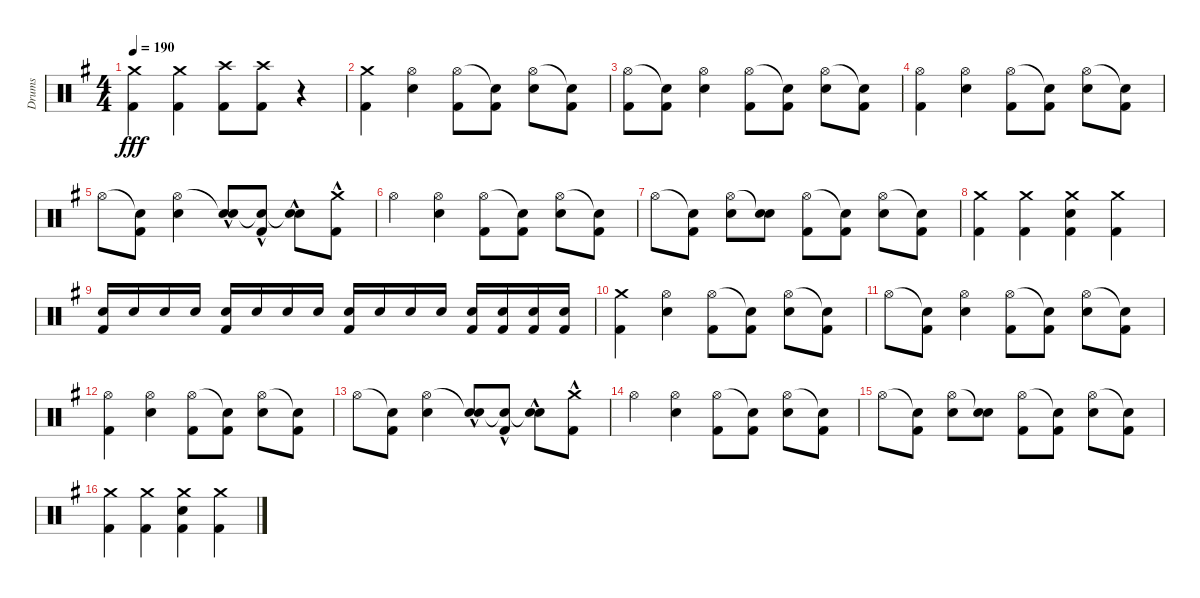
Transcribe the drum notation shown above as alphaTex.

\track ("Drums" "Drums") {instrument percussion}
\staff {score}
\articulation defaults
\ts (4 4)
\tempo 190
\clef neutral
\ks eminor
("Crash medium (hit)" "Kick (hit) 2").4{dy fff} ("Crash medium (hit)" "Kick (hit) 2").4 ("Crash high (hit)" "Kick (hit) 2").8 ("Crash high (hit)" "Kick (hit) 2").8 r.4 |
("Crash medium (hit)" "Kick (hit) 2").4 ("Hi-Hat (open)" "Electric Snare (hit)").4 ("Hi-Hat (open)" "Kick (hit) 2").8 ("Snare (hit)"{t} "Kick (hit) 2").8 ("Hi-Hat (open)" "Electric Snare (hit)").8 ("Snare (hit)"{t} "Kick (hit) 2").8 |
("Hi-Hat (open)" "Kick (hit) 2").8 ("Snare (hit)"{t} "Kick (hit) 2").8 ("Hi-Hat (open)" "Electric Snare (hit)").4 ("Hi-Hat (open)" "Kick (hit) 2").8 ("Snare (hit)"{t} "Kick (hit) 2").8 ("Hi-Hat (open)" "Electric Snare (hit)").8 ("Snare (hit)"{t} "Kick (hit) 2").8 |
("Hi-Hat (open)" "Kick (hit) 2").4 ("Hi-Hat (open)" "Electric Snare (hit)").4 ("Hi-Hat (open)" "Kick (hit) 2").8 ("Snare (hit)"{t} "Kick (hit) 2").8 ("Hi-Hat (open)" "Electric Snare (hit)").8 ("Snare (hit)"{t} "Kick (hit) 2").8 |
"Hi-Hat (open)".8 ("Snare (hit)"{t} "Kick (hit) 2").8 ("Hi-Hat (open)" "Electric Snare (hit)").4 ("Snare (hit)"{t} "Electric Snare (hit)"{hac}).8 ("Snare (hit)"{t} "Kick (hit) 2"{hac}).8 ("Snare (hit)"{t} "Electric Snare (hit)"{hac}).8 ("Crash medium (hit)" "Kick (hit) 2"{hac}).8 |
"Hi-Hat (open)".4 ("Hi-Hat (open)" "Electric Snare (hit)").4 ("Hi-Hat (open)" "Kick (hit) 2").8 ("Snare (hit)"{t} "Kick (hit) 2").8 ("Hi-Hat (open)" "Electric Snare (hit)").8 ("Snare (hit)"{t} "Kick (hit) 2").8 |
"Hi-Hat (open)".8 ("Snare (hit)"{t} "Kick (hit) 2").8 ("Hi-Hat (open)" "Electric Snare (hit)").8 ("Snare (hit)"{t} "Electric Snare (hit)").8 ("Hi-Hat (open)" "Kick (hit) 2").8 ("Snare (hit)"{t} "Kick (hit) 2").8 ("Hi-Hat (open)" "Electric Snare (hit)").8 ("Snare (hit)"{t} "Kick (hit) 2").8 |
("Crash medium (hit)" "Kick (hit) 2").4 ("Crash medium (hit)" "Kick (hit) 2").4 ("Crash medium (hit)" "Electric Snare (hit)" "Kick (hit) 2").4 ("Crash medium (hit)" "Kick (hit) 2").4 |
("Electric Snare (hit)" "Kick (hit) 2").16 "Electric Snare (hit)".16 "Electric Snare (hit)".16 "Electric Snare (hit)".16 ("Electric Snare (hit)" "Kick (hit) 2").16 "Electric Snare (hit)".16 "Electric Snare (hit)".16 "Electric Snare (hit)".16 ("Electric Snare (hit)" "Kick (hit) 2").16 "Electric Snare (hit)".16 "Electric Snare (hit)".16 "Electric Snare (hit)".16 ("Electric Snare (hit)" "Kick (hit) 2").16 ("Electric Snare (hit)" "Kick (hit) 2").16 ("Electric Snare (hit)" "Kick (hit) 2").16 ("Electric Snare (hit)" "Kick (hit) 2").16 |
("Crash medium (hit)" "Kick (hit) 2").4 ("Hi-Hat (open)" "Electric Snare (hit)").4 ("Hi-Hat (open)" "Kick (hit) 2").8 ("Snare (hit)"{t} "Kick (hit) 2").8 ("Hi-Hat (open)" "Electric Snare (hit)").8 ("Snare (hit)"{t} "Kick (hit) 2").8 |
"Hi-Hat (open)".8 ("Snare (hit)"{t} "Kick (hit) 2").8 ("Hi-Hat (open)" "Electric Snare (hit)").4 ("Hi-Hat (open)" "Kick (hit) 2").8 ("Snare (hit)"{t} "Kick (hit) 2").8 ("Hi-Hat (open)" "Electric Snare (hit)").8 ("Snare (hit)"{t} "Kick (hit) 2").8 |
("Hi-Hat (open)" "Kick (hit) 2").4 ("Hi-Hat (open)" "Electric Snare (hit)").4 ("Hi-Hat (open)" "Kick (hit) 2").8 ("Snare (hit)"{t} "Kick (hit) 2").8 ("Hi-Hat (open)" "Electric Snare (hit)").8 ("Snare (hit)"{t} "Kick (hit) 2").8 |
"Hi-Hat (open)".8 ("Snare (hit)"{t} "Kick (hit) 2").8 ("Hi-Hat (open)" "Electric Snare (hit)").4 ("Snare (hit)"{t} "Electric Snare (hit)"{hac}).8 ("Snare (hit)"{t} "Kick (hit) 2"{hac}).8 ("Snare (hit)"{t} "Electric Snare (hit)"{hac}).8 ("Crash medium (hit)" "Kick (hit) 2"{hac}).8 |
"Hi-Hat (open)".4 ("Hi-Hat (open)" "Electric Snare (hit)").4 ("Hi-Hat (open)" "Kick (hit) 2").8 ("Snare (hit)"{t} "Kick (hit) 2").8 ("Hi-Hat (open)" "Electric Snare (hit)").8 ("Snare (hit)"{t} "Kick (hit) 2").8 |
"Hi-Hat (open)".8 ("Snare (hit)"{t} "Kick (hit) 2").8 ("Hi-Hat (open)" "Electric Snare (hit)").8 ("Snare (hit)"{t} "Electric Snare (hit)").8 ("Hi-Hat (open)" "Kick (hit) 2").8 ("Snare (hit)"{t} "Kick (hit) 2").8 ("Hi-Hat (open)" "Electric Snare (hit)").8 ("Snare (hit)"{t} "Kick (hit) 2").8 |
("Crash medium (hit)" "Kick (hit) 2").4 ("Crash medium (hit)" "Kick (hit) 2").4 ("Crash medium (hit)" "Electric Snare (hit)" "Kick (hit) 2").4 ("Crash medium (hit)" "Kick (hit) 2").4
